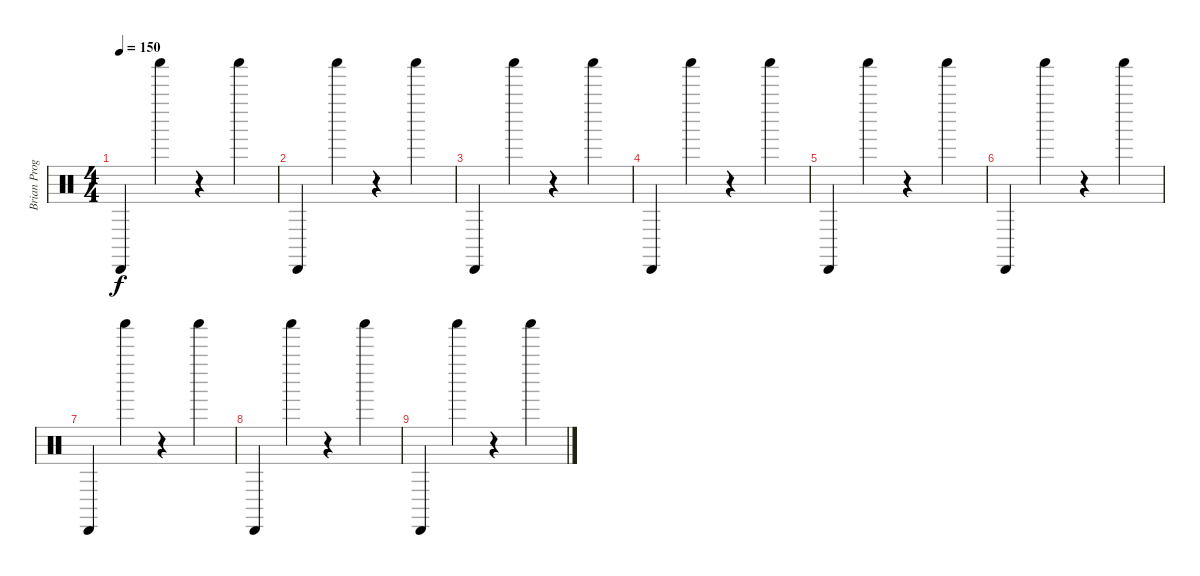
\track ("Brian Programming" "Brian Prog") {instrument percussion}
\staff {score}
\articulation defaults
\ts (4 4)
\tempo 150
\clef neutral
\ks c "Cabasa (hit)".4{dy f} "Shaker (hit)".4
r.4 "Shaker (hit)".4 |
"Cabasa (hit)".4 "Shaker (hit)".4 r.4 "Shaker (hit)".4 |
"Cabasa (hit)".4 "Shaker (hit)".4 r.4 "Shaker (hit)".4 |
"Cabasa (hit)".4 "Shaker (hit)".4 r.4 "Shaker (hit)".4 |
"Cabasa (hit)".4 "Shaker (hit)".4 r.4 "Shaker (hit)".4 |
"Cabasa (hit)".4 "Shaker (hit)".4 r.4 "Shaker (hit)".4 |
"Cabasa (hit)".4 "Shaker (hit)".4 r.4 "Shaker (hit)".4 |
"Cabasa (hit)".4 "Shaker (hit)".4 r.4 "Shaker (hit)".4 |
"Cabasa (hit)".4 "Shaker (hit)".4 r.4 "Shaker (hit)".4
